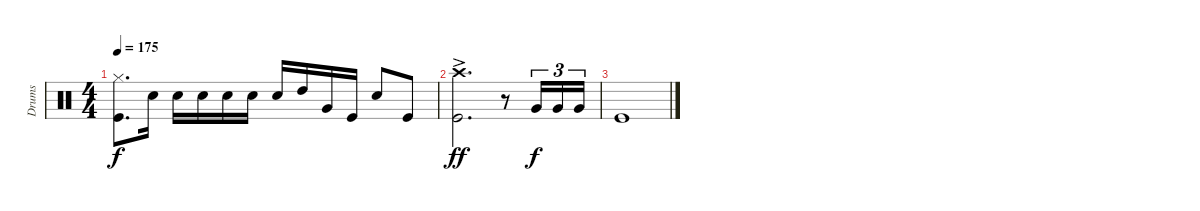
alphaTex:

\track ("Drums" "Drums") {instrument percussion}
\staff {score}
\articulation defaults
\ts (4 4)
\tempo 175
\clef neutral
\ks c
("Kick (hit)" "Hi-Hat (closed)").8{d dy f} "Snare (hit) 2".16 "Snare (hit) 2".16 "Snare (hit) 2".16 "Snare (hit) 2".16 "Snare (hit) 2".16 "Snare (hit) 2".16 "High Tom (hit)".16 "Very Low Tom (hit)".16 "Kick (hit)".16 "Snare (hit) 2".8 "Kick (hit)".8 |
("Crash high (hit)"{ac} "Kick (hit)").2{d dy ff} r.8 "Very Low Tom (hit)".16{tu (3 2) dy f} "Very Low Tom (hit)".16{tu (3 2)} "Very Low Tom (hit)".16{tu (3 2)} |
"Kick (hit)".1
